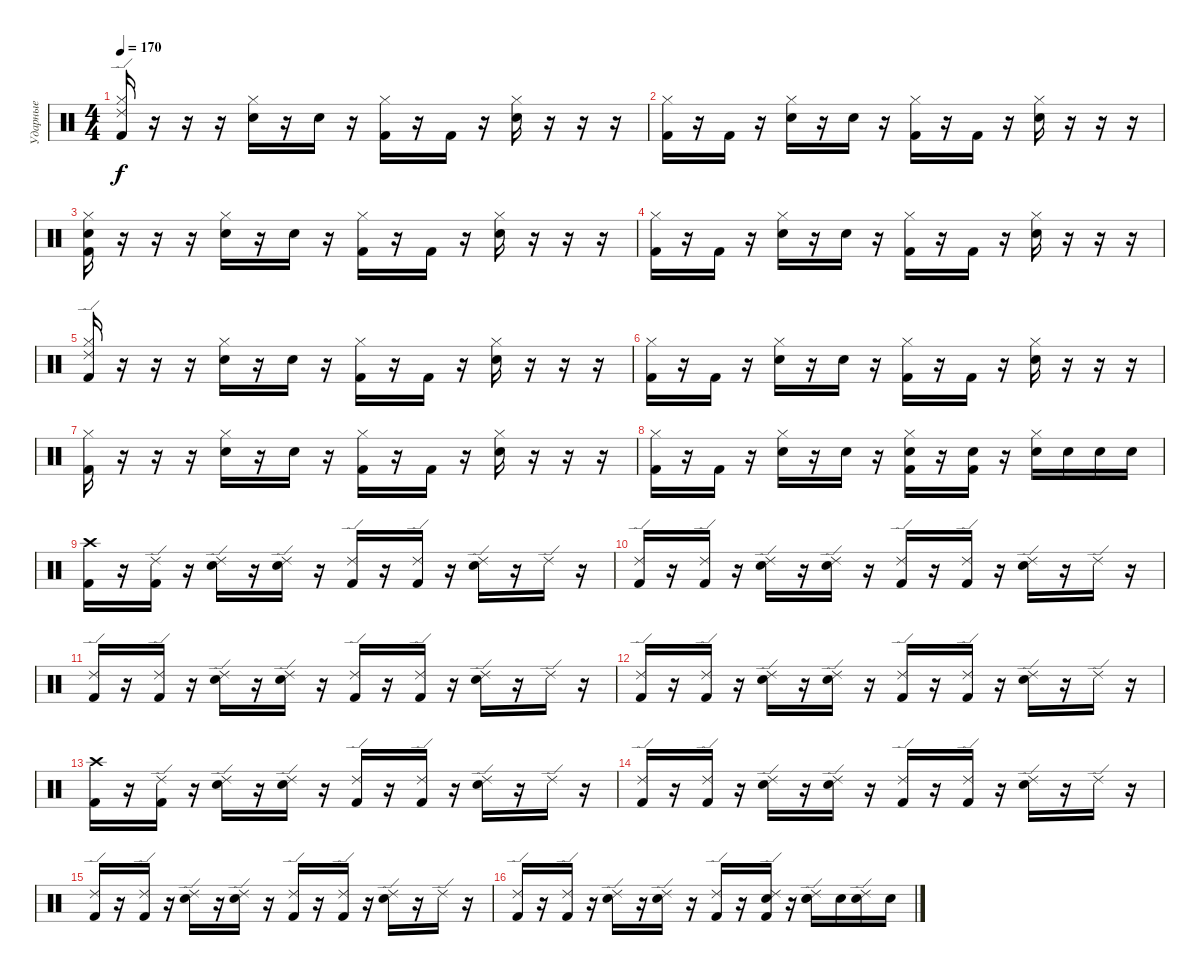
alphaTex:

\track ("Ударные" "Ударные") {instrument percussion}
\staff {score}
\articulation defaults
\ts (4 4)
\tempo 170
\clef neutral
\ks c
("Ride (edge) 2" "Hi-Hat (closed)" "Kick (hit) 2").16{dy f} r.16 r.16 r.16 ("Hi-Hat (closed)" "Snare (hit) 2").16 r.16 "Snare (hit) 2".16 r.16 ("Hi-Hat (closed)" "Kick (hit) 2").16 r.16 "Kick (hit) 2".16 r.16 ("Hi-Hat (closed)" "Snare (hit) 2").16 r.16 r.16 r.16 |
("Hi-Hat (closed)" "Kick (hit) 2").16 r.16 "Kick (hit) 2".16 r.16 ("Hi-Hat (closed)" "Snare (hit) 2").16 r.16 "Snare (hit) 2".16 r.16 ("Hi-Hat (closed)" "Kick (hit) 2").16 r.16 "Kick (hit) 2".16 r.16 ("Hi-Hat (closed)" "Snare (hit) 2").16 r.16 r.16 r.16 |
("Hi-Hat (closed)" "Snare (hit) 2" "Kick (hit) 2").16 r.16 r.16 r.16 ("Hi-Hat (closed)" "Snare (hit) 2").16 r.16 "Snare (hit) 2".16 r.16 ("Hi-Hat (closed)" "Kick (hit) 2").16 r.16 "Kick (hit) 2".16 r.16 ("Hi-Hat (closed)" "Snare (hit) 2").16 r.16 r.16 r.16 |
("Hi-Hat (closed)" "Kick (hit) 2").16 r.16 "Kick (hit) 2".16 r.16 ("Hi-Hat (closed)" "Snare (hit) 2").16 r.16 "Snare (hit) 2".16 r.16 ("Hi-Hat (closed)" "Kick (hit) 2").16 r.16 "Kick (hit) 2".16 r.16 ("Hi-Hat (closed)" "Snare (hit) 2").16 r.16 r.16 r.16 |
("Ride (edge) 2" "Hi-Hat (closed)" "Kick (hit) 2").16 r.16 r.16 r.16 ("Hi-Hat (closed)" "Snare (hit) 2").16 r.16 "Snare (hit) 2".16 r.16 ("Hi-Hat (closed)" "Kick (hit) 2").16 r.16 "Kick (hit) 2".16 r.16 ("Hi-Hat (closed)" "Snare (hit) 2").16 r.16 r.16 r.16 |
("Hi-Hat (closed)" "Kick (hit) 2").16 r.16 "Kick (hit) 2".16 r.16 ("Hi-Hat (closed)" "Snare (hit) 2").16 r.16 "Snare (hit) 2".16 r.16 ("Hi-Hat (closed)" "Kick (hit) 2").16 r.16 "Kick (hit) 2".16 r.16 ("Hi-Hat (closed)" "Snare (hit) 2").16 r.16 r.16 r.16 |
("Hi-Hat (closed)" "Kick (hit) 2").16 r.16 r.16 r.16 ("Hi-Hat (closed)" "Snare (hit) 2").16 r.16 "Snare (hit) 2".16 r.16 ("Hi-Hat (closed)" "Kick (hit) 2").16 r.16 "Kick (hit) 2".16 r.16 ("Hi-Hat (closed)" "Snare (hit) 2").16 r.16 r.16 r.16 |
("Hi-Hat (closed)" "Kick (hit) 2").16 r.16 "Kick (hit) 2".16 r.16 ("Hi-Hat (closed)" "Snare (hit) 2").16 r.16 "Snare (hit) 2".16 r.16 ("Hi-Hat (closed)" "Snare (hit) 2" "Kick (hit) 2").16 r.16 ("Snare (hit) 2" "Kick (hit) 2").16 r.16 ("Hi-Hat (closed)" "Snare (hit) 2").16 "Snare (hit) 2".16 "Snare (hit) 2".16 "Snare (hit) 2".16 |
("Crash high (hit)" "Kick (hit) 2").16 r.16 ("Ride (edge) 2" "Kick (hit) 2").16 r.16 ("Ride (edge) 2" "Snare (hit) 2").16 r.16 ("Ride (edge) 2" "Snare (hit) 2").16 r.16 ("Ride (edge) 2" "Kick (hit) 2").16 r.16 ("Ride (edge) 2" "Kick (hit) 2").16 r.16 ("Ride (edge) 2" "Snare (hit) 2").16 r.16 "Ride (edge) 2".16 r.16 |
("Ride (edge) 2" "Kick (hit) 2").16 r.16 ("Ride (edge) 2" "Kick (hit) 2").16 r.16 ("Ride (edge) 2" "Snare (hit) 2").16 r.16 ("Ride (edge) 2" "Snare (hit) 2").16 r.16 ("Ride (edge) 2" "Kick (hit) 2").16 r.16 ("Ride (edge) 2" "Kick (hit) 2").16 r.16 ("Ride (edge) 2" "Snare (hit) 2").16 r.16 "Ride (edge) 2".16 r.16 |
("Ride (edge) 2" "Kick (hit) 2").16 r.16 ("Ride (edge) 2" "Kick (hit) 2").16 r.16 ("Ride (edge) 2" "Snare (hit) 2").16 r.16 ("Ride (edge) 2" "Snare (hit) 2").16 r.16 ("Ride (edge) 2" "Kick (hit) 2").16 r.16 ("Ride (edge) 2" "Kick (hit) 2").16 r.16 ("Ride (edge) 2" "Snare (hit) 2").16 r.16 "Ride (edge) 2".16 r.16 |
("Ride (edge) 2" "Kick (hit) 2").16 r.16 ("Ride (edge) 2" "Kick (hit) 2").16 r.16 ("Ride (edge) 2" "Snare (hit) 2").16 r.16 ("Ride (edge) 2" "Snare (hit) 2").16 r.16 ("Ride (edge) 2" "Kick (hit) 2").16 r.16 ("Ride (edge) 2" "Kick (hit) 2").16 r.16 ("Ride (edge) 2" "Snare (hit) 2").16 r.16 "Ride (edge) 2".16 r.16 |
("Crash high (hit)" "Kick (hit) 2").16 r.16 ("Ride (edge) 2" "Kick (hit) 2").16 r.16 ("Ride (edge) 2" "Snare (hit) 2").16 r.16 ("Ride (edge) 2" "Snare (hit) 2").16 r.16 ("Ride (edge) 2" "Kick (hit) 2").16 r.16 ("Ride (edge) 2" "Kick (hit) 2").16 r.16 ("Ride (edge) 2" "Snare (hit) 2").16 r.16 "Ride (edge) 2".16 r.16 |
("Ride (edge) 2" "Kick (hit) 2").16 r.16 ("Ride (edge) 2" "Kick (hit) 2").16 r.16 ("Ride (edge) 2" "Snare (hit) 2").16 r.16 ("Ride (edge) 2" "Snare (hit) 2").16 r.16 ("Ride (edge) 2" "Kick (hit) 2").16 r.16 ("Ride (edge) 2" "Kick (hit) 2").16 r.16 ("Ride (edge) 2" "Snare (hit) 2").16 r.16 "Ride (edge) 2".16 r.16 |
("Ride (edge) 2" "Kick (hit) 2").16 r.16 ("Ride (edge) 2" "Kick (hit) 2").16 r.16 ("Ride (edge) 2" "Snare (hit) 2").16 r.16 ("Ride (edge) 2" "Snare (hit) 2").16 r.16 ("Ride (edge) 2" "Kick (hit) 2").16 r.16 ("Ride (edge) 2" "Kick (hit) 2").16 r.16 ("Ride (edge) 2" "Snare (hit) 2").16 r.16 "Ride (edge) 2".16 r.16 |
("Ride (edge) 2" "Kick (hit) 2").16 r.16 ("Ride (edge) 2" "Kick (hit) 2").16 r.16 ("Ride (edge) 2" "Snare (hit) 2").16 r.16 ("Ride (edge) 2" "Snare (hit) 2").16 r.16 ("Ride (edge) 2" "Kick (hit) 2").16 r.16 ("Ride (edge) 2" "Snare (hit) 2" "Kick (hit) 2").16 r.16 ("Ride (edge) 2" "Snare (hit) 2" "Snare (hit) 2").16 "Snare (hit) 2".16 ("Ride (edge) 2" "Snare (hit) 2").16 "Snare (hit) 2".16
